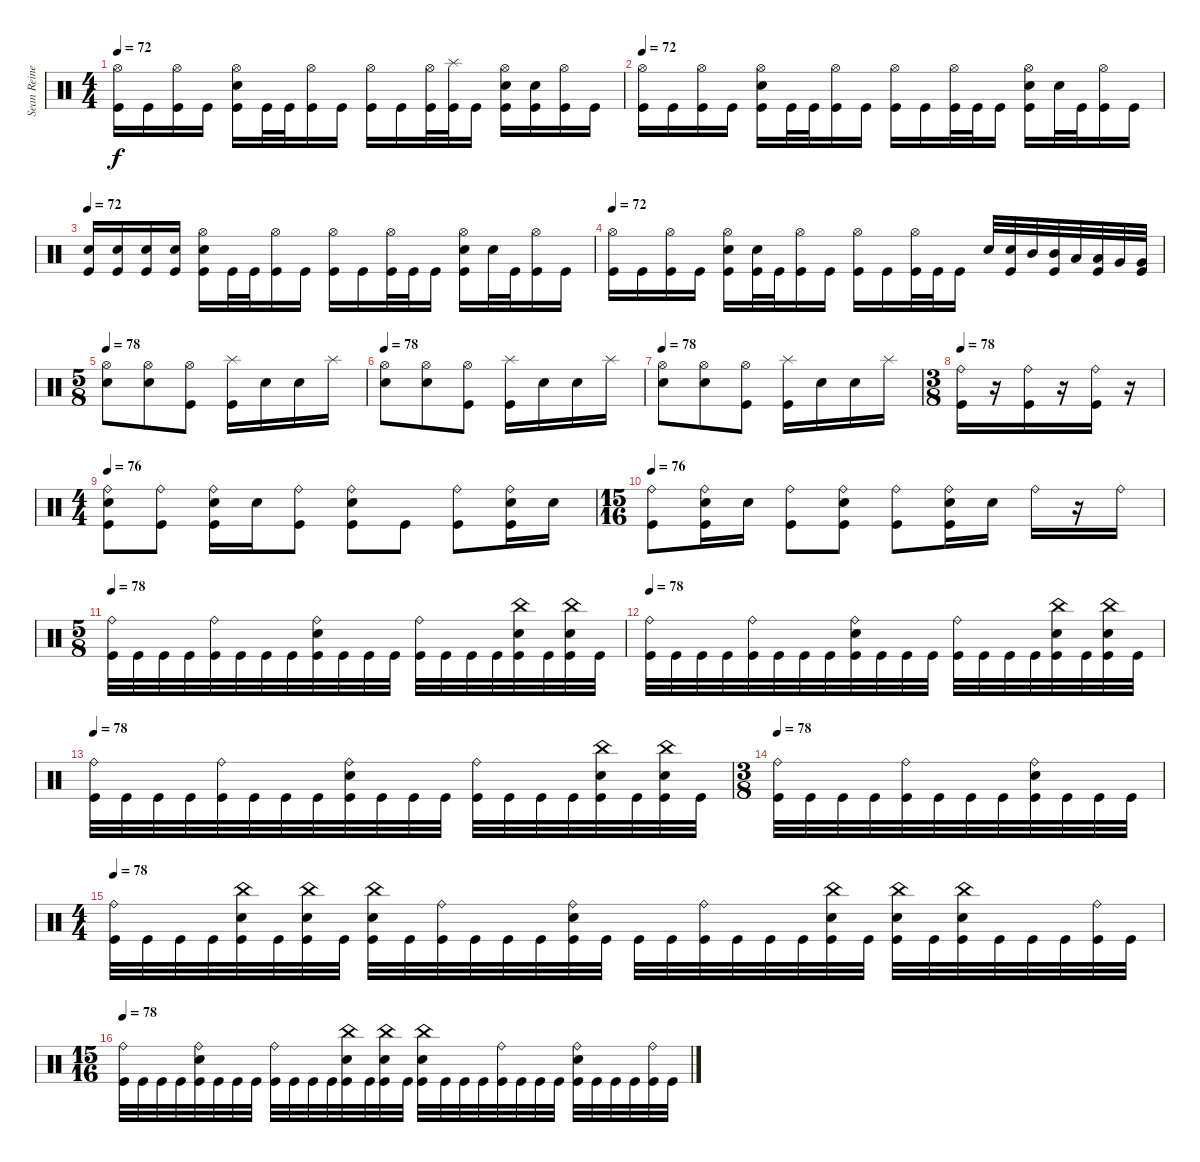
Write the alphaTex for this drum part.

\track ("Sean Reinert" "Sean Reine") {instrument percussion}
\staff {score}
\articulation defaults
\ts (4 4)
\tempo 72
\clef neutral
\ks c
("Hi-Hat (open)" "Kick (hit)").16{dy f} "Kick (hit)".16 ("Hi-Hat (open)" "Kick (hit)").16 "Kick (hit)".16 ("Hi-Hat (open)" "Snare (hit) 2" "Kick (hit)").16 "Kick (hit)".32 "Kick (hit)".32 ("Hi-Hat (open)" "Kick (hit)").16 "Kick (hit)".16 ("Hi-Hat (open)" "Kick (hit)").16 "Kick (hit)".16 ("Hi-Hat (open)" "Kick (hit)").32 ("Splash (hit)" "Kick (hit)").32 "Kick (hit)".16 ("Hi-Hat (open)" "Snare (hit) 2" "Kick (hit)").16 ("Snare (hit) 2" "Kick (hit)").16 ("Hi-Hat (open)" "Kick (hit)").16 "Kick (hit)".16 |
\tempo 72
("Hi-Hat (open)" "Kick (hit)").16 "Kick (hit)".16 ("Hi-Hat (open)" "Kick (hit)").16 "Kick (hit)".16 ("Hi-Hat (open)" "Snare (hit) 2" "Kick (hit)").16 "Kick (hit)".32 "Kick (hit)".32 ("Hi-Hat (open)" "Kick (hit)").16 "Kick (hit)".16 ("Hi-Hat (open)" "Kick (hit)").16 "Kick (hit)".16 ("Hi-Hat (open)" "Kick (hit)").32 "Kick (hit)".32 "Kick (hit)".16 ("Hi-Hat (open)" "Snare (hit) 2" "Kick (hit)").16 "Snare (hit) 2".32 "Kick (hit)".32 ("Hi-Hat (open)" "Kick (hit)").16 "Kick (hit)".16 |
\tempo 72
("Snare (hit) 2" "Kick (hit)").16 ("Snare (hit) 2" "Kick (hit)").16 ("Snare (hit) 2" "Kick (hit)").16 ("Snare (hit) 2" "Kick (hit)").16 ("Hi-Hat (open)" "Snare (hit) 2" "Kick (hit)").16 "Kick (hit)".32 "Kick (hit)".32 ("Hi-Hat (open)" "Kick (hit)").16 "Kick (hit)".16 ("Hi-Hat (open)" "Kick (hit)").16 "Kick (hit)".16 ("Hi-Hat (open)" "Kick (hit)").32 "Kick (hit)".32 "Kick (hit)".16 ("Hi-Hat (open)" "Snare (hit) 2" "Kick (hit)").16 "Snare (hit) 2".32 "Kick (hit)".32 ("Hi-Hat (open)" "Kick (hit)").16 "Kick (hit)".16 |
\tempo 72
("Hi-Hat (open)" "Kick (hit)").16 "Kick (hit)".16 ("Hi-Hat (open)" "Kick (hit)").16 "Kick (hit)".16 ("Hi-Hat (open)" "Snare (hit) 2" "Kick (hit)").16 ("Snare (hit) 2" "Kick (hit)").32 "Kick (hit)".32 ("Hi-Hat (open)" "Kick (hit)").16 "Kick (hit)".16 ("Hi-Hat (open)" "Kick (hit)").16 "Kick (hit)".16 ("Hi-Hat (open)" "Kick (hit)").32 "Kick (hit)".32 "Kick (hit)".16 "Snare (hit) 2".32 ("Snare (hit) 2" "Kick (hit)").32 "Mid Tom (hit)".32 ("Mid Tom (hit)" "Kick (hit)").32 "Low Tom (hit)".32 ("Low Tom (hit)" "Kick (hit)").32 "Very Low Tom (hit)".32 ("Very Low Tom (hit)" "Kick (hit)").32 |
\ts (5 8)
\tempo 78
("Hi-Hat (open)" "Snare (hit) 2").8 ("Hi-Hat (open)" "Snare (hit) 2").8 ("Hi-Hat (open)" "Kick (hit)").8 ("Splash (hit)" "Kick (hit)").16 "Snare (hit) 2".16 "Snare (hit) 2".16 "Splash (hit)".16 |
\tempo 78
("Hi-Hat (open)" "Snare (hit) 2").8 ("Hi-Hat (open)" "Snare (hit) 2").8 ("Hi-Hat (open)" "Kick (hit)").8 ("Splash (hit)" "Kick (hit)").16 "Snare (hit) 2".16 "Snare (hit) 2".16 "Splash (hit)".16 |
\tempo 78
("Hi-Hat (open)" "Snare (hit) 2").8 ("Hi-Hat (open)" "Snare (hit) 2").8 ("Hi-Hat (open)" "Kick (hit)").8 ("Splash (hit)" "Kick (hit)").16 "Snare (hit) 2".16 "Snare (hit) 2".16 "Splash (hit)".16 |
\ts (3 8)
\tempo 78
("Ride (bell)" "Kick (hit)").16 r.16 ("Ride (bell)" "Kick (hit)").16 r.16 ("Ride (bell)" "Kick (hit)").16 r.16 |
\ts (4 4)
\tempo 76
("Ride (bell)" "Snare (hit) 2" "Kick (hit)").8 ("Ride (bell)" "Kick (hit)").8 ("Ride (bell)" "Snare (hit) 2" "Kick (hit)").16 "Snare (hit) 2".16 ("Ride (bell)" "Kick (hit)").8 ("Ride (bell)" "Snare (hit) 2" "Kick (hit)").8 "Kick (hit)".8 ("Ride (bell)" "Kick (hit)").8 ("Ride (bell)" "Snare (hit) 2" "Kick (hit)").16 "Snare (hit) 2".16 |
\ts (15 16)
\tempo 76
("Ride (bell)" "Kick (hit)").8 ("Ride (bell)" "Snare (hit) 2" "Kick (hit)").16 "Snare (hit) 2".16 ("Ride (bell)" "Kick (hit)").8 ("Ride (bell)" "Snare (hit) 2" "Kick (hit)").8 ("Ride (bell)" "Kick (hit)").8 ("Ride (bell)" "Snare (hit) 2" "Kick (hit)").16 "Snare (hit) 2".16 "Ride (bell)".16 r.16 "Ride (bell)".16 |
\ts (5 8)
\tempo 78
("Ride (bell)" "Kick (hit)").32 "Kick (hit)".32 "Kick (hit)".32 "Kick (hit)".32 ("Ride (bell)" "Kick (hit)").32 "Kick (hit)".32 "Kick (hit)".32 "Kick (hit)".32 ("Ride (bell)" "Snare (hit) 2" "Kick (hit)").32 "Kick (hit)".32 "Kick (hit)".32 "Kick (hit)".32 ("Ride (bell)" "Kick (hit)").32 "Kick (hit)".32 "Kick (hit)".32 "Kick (hit)".32 ("China (hit)" "Snare (hit) 2" "Kick (hit)").32 "Kick (hit)".32 ("China (hit)" "Snare (hit) 2" "Kick (hit)").32 "Kick (hit)".32 |
\tempo 78
("Ride (bell)" "Kick (hit)").32 "Kick (hit)".32 "Kick (hit)".32 "Kick (hit)".32 ("Ride (bell)" "Kick (hit)").32 "Kick (hit)".32 "Kick (hit)".32 "Kick (hit)".32 ("Ride (bell)" "Snare (hit) 2" "Kick (hit)").32 "Kick (hit)".32 "Kick (hit)".32 "Kick (hit)".32 ("Ride (bell)" "Kick (hit)").32 "Kick (hit)".32 "Kick (hit)".32 "Kick (hit)".32 ("China (hit)" "Snare (hit) 2" "Kick (hit)").32 "Kick (hit)".32 ("China (hit)" "Snare (hit) 2" "Kick (hit)").32 "Kick (hit)".32 |
\tempo 78
("Ride (bell)" "Kick (hit)").32 "Kick (hit)".32 "Kick (hit)".32 "Kick (hit)".32 ("Ride (bell)" "Kick (hit)").32 "Kick (hit)".32 "Kick (hit)".32 "Kick (hit)".32 ("Ride (bell)" "Snare (hit) 2" "Kick (hit)").32 "Kick (hit)".32 "Kick (hit)".32 "Kick (hit)".32 ("Ride (bell)" "Kick (hit)").32 "Kick (hit)".32 "Kick (hit)".32 "Kick (hit)".32 ("China (hit)" "Snare (hit) 2" "Kick (hit)").32 "Kick (hit)".32 ("China (hit)" "Snare (hit) 2" "Kick (hit)").32 "Kick (hit)".32 |
\ts (3 8)
\tempo 78
("Ride (bell)" "Kick (hit)").32 "Kick (hit)".32 "Kick (hit)".32 "Kick (hit)".32 ("Ride (bell)" "Kick (hit)").32 "Kick (hit)".32 "Kick (hit)".32 "Kick (hit)".32 ("Ride (bell)" "Snare (hit) 2" "Kick (hit)").32 "Kick (hit)".32 "Kick (hit)".32 "Kick (hit)".32 |
\ts (4 4)
\tempo 78
("Ride (bell)" "Kick (hit)").32 "Kick (hit)".32 "Kick (hit)".32 "Kick (hit)".32 ("China (hit)" "Snare (hit) 2" "Kick (hit)").32 "Kick (hit)".32 ("China (hit)" "Snare (hit) 2" "Kick (hit)").32 "Kick (hit)".32 ("China (hit)" "Snare (hit) 2" "Kick (hit)").32 "Kick (hit)".32 ("Ride (bell)" "Kick (hit)").32 "Kick (hit)".32 "Kick (hit)".32 "Kick (hit)".32 ("Ride (bell)" "Snare (hit) 2" "Kick (hit)").32 "Kick (hit)".32 "Kick (hit)".32 "Kick (hit)".32 ("Ride (bell)" "Kick (hit)").32 "Kick (hit)".32 "Kick (hit)".32 "Kick (hit)".32 ("China (hit)" "Snare (hit) 2" "Kick (hit)").32 "Kick (hit)".32 ("China (hit)" "Snare (hit) 2" "Kick (hit)").32 "Kick (hit)".32 ("China (hit)" "Snare (hit) 2" "Kick (hit)").32 "Kick (hit)".32 "Kick (hit)".32 "Kick (hit)".32 ("Ride (bell)" "Kick (hit)").32 "Kick (hit)".32 |
\ts (15 16)
\tempo 78
("Ride (bell)" "Kick (hit)").32 "Kick (hit)".32 "Kick (hit)".32 "Kick (hit)".32 ("Ride (bell)" "Snare (hit) 2" "Kick (hit)").32 "Kick (hit)".32 "Kick (hit)".32 "Kick (hit)".32 ("Ride (bell)" "Kick (hit)").32 "Kick (hit)".32 "Kick (hit)".32 "Kick (hit)".32 ("China (hit)" "Snare (hit) 2" "Kick (hit)").32 "Kick (hit)".32 ("China (hit)" "Snare (hit) 2" "Kick (hit)").32 "Kick (hit)".32 ("China (hit)" "Snare (hit) 2" "Kick (hit)").32 "Kick (hit)".32 "Kick (hit)".32 "Kick (hit)".32 ("Ride (bell)" "Kick (hit)").32 "Kick (hit)".32 "Kick (hit)".32 "Kick (hit)".32 ("Ride (bell)" "Snare (hit) 2" "Kick (hit)").32 "Kick (hit)".32 "Kick (hit)".32 "Kick (hit)".32 ("Ride (bell)" "Kick (hit)").32 "Kick (hit)".32
